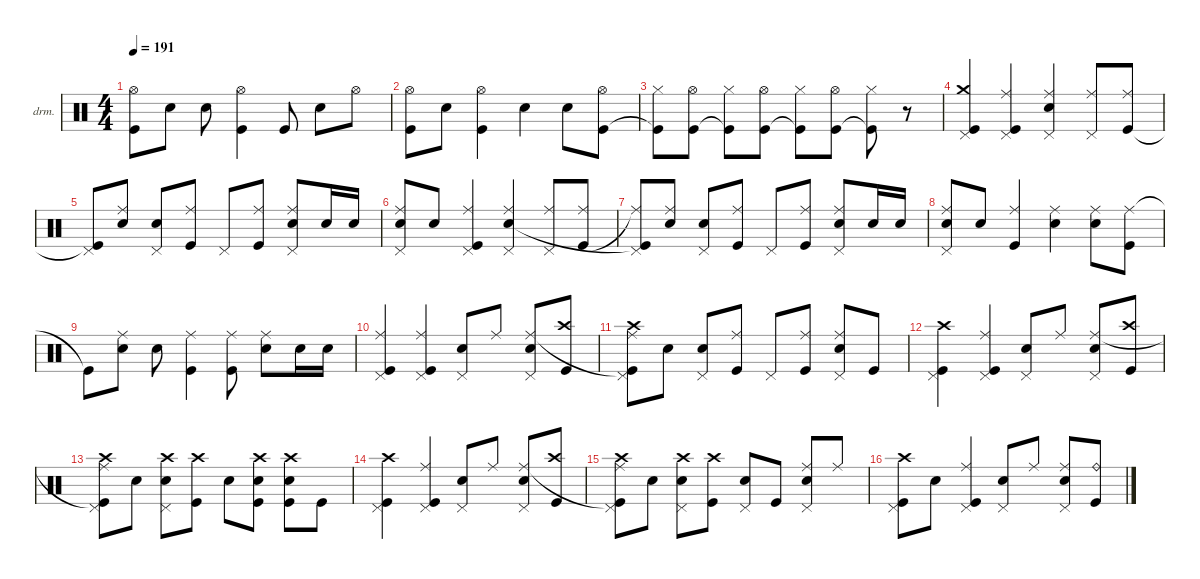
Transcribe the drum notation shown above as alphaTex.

\defaultSystemsLayout 4
\hideDynamics
\bracketExtendMode nobrackets
\firstSystemTrackNameOrientation horizontal
\otherSystemsTrackNameOrientation horizontal
\track ("Drumkit" "drm.") {instrument percussion}
\staff {score}
\articulation defaults
\ts (4 4)
\tempo 191
\clef neutral
\ks c
("Kick (hit)"{t} "Hi-Hat (open)"{t}).8{dy mf beam Down} "Snare (hit) 2".8{beam Down} "Snare (hit) 2".8{beam Down} ("Kick (hit)" "Hi-Hat (open)").4{beam Down} "Kick (hit)".8{beam Up} "Snare (hit) 2".8{beam Down} "Hi-Hat (open)".8{beam Down} |
("Kick (hit)" "Hi-Hat (open)").8{beam Down} "Snare (hit) 2".8{beam Down} ("Kick (hit)" "Hi-Hat (open)").4{beam Down} "Snare (hit) 2".4{beam Down} "Snare (hit) 2".8{beam Down} ("Kick (hit)" "Hi-Hat (open)").8{beam Down} |
("Kick (hit)"{t} "Hi-Hat (closed)").8{beam Down} ("Kick (hit)" "Hi-Hat (open)").8{beam Down} ("Kick (hit)"{t} "Hi-Hat (closed)").8{beam Down} ("Kick (hit)" "Hi-Hat (open)").8{beam Down} ("Kick (hit)"{t} "Hi-Hat (closed)").8{beam Down} ("Kick (hit)" "Hi-Hat (open)").8{beam Down} ("Kick (hit)"{t} "Hi-Hat (closed)").8{beam Down} r.8{beam Down} |
("Pedal Hi-Hat (hit)" "Crash medium (hit)" "Kick (hit)").4{dy f beam Up} ("Pedal Hi-Hat (hit)" "Ride (middle)" "Kick (hit)").4{beam Up} ("Pedal Hi-Hat (hit)" "Ride (middle)" "Snare (hit) 2").4{beam Up} ("Pedal Hi-Hat (hit)" "Ride (middle)").8{beam Up} ("Ride (middle)" "Kick (hit)").8{beam Up} |
("Pedal Hi-Hat (hit)" "Kick (hit)"{t}).8{beam Up} ("Ride (middle)" "Snare (hit) 2").8{beam Up} ("Pedal Hi-Hat (hit)" "Snare (hit) 2").8{beam Up} ("Ride (middle)" "Kick (hit)").8{beam Up} "Pedal Hi-Hat (hit)".8{beam Up} ("Ride (middle)" "Kick (hit)").8{beam Up} ("Pedal Hi-Hat (hit)" "Ride (middle)" "Snare (hit) 2").8{beam Up} "Snare (hit) 2".16{dy mp beam Up} "Snare (hit) 2".16{beam Up} |
("Pedal Hi-Hat (hit)" "Ride (middle)" "Snare (hit) 2").8{dy f beam Up} "Snare (hit) 2".8{dy mf beam Up} ("Pedal Hi-Hat (hit)" "Ride (middle)" "Kick (hit)").4{dy f beam Up} ("Pedal Hi-Hat (hit)" "Ride (middle)" "Snare (hit) 2").4{beam Up} ("Pedal Hi-Hat (hit)" "Ride (middle)").8{beam Up} ("Ride (middle)" "Kick (hit)").8{dy mf beam Up} |
("Pedal Hi-Hat (hit)" "Ride (middle)"{t} "Kick (hit)"{t}).8{dy f beam Up} ("Ride (middle)" "Snare (hit) 2").8{beam Up} ("Pedal Hi-Hat (hit)" "Snare (hit) 2").8{beam Up} ("Kick (hit)" "Ride (middle)").8{beam Up} "Pedal Hi-Hat (hit)".8{beam Up} ("Ride (middle)" "Kick (hit)").8{beam Up} ("Pedal Hi-Hat (hit)" "Ride (middle)" "Snare (hit) 2").8{beam Up} "Snare (hit) 2".16{dy mp beam Up} "Snare (hit) 2".16{beam Up} |
("Pedal Hi-Hat (hit)" "Ride (middle)" "Snare (hit) 2").8{dy f beam Up} "Snare (hit) 2".8{dy mf beam Up} ("Ride (middle)" "Kick (hit)").4{dy f beam Up} ("Ride (middle)" "Snare (hit) 2").4{beam Down} ("Ride (middle)" "Snare (hit) 2").8{beam Down} ("Ride (middle)" "Kick (hit)").8{beam Down} |
"Kick (hit)"{t}.8{dy mf beam Down} ("Ride (middle)" "Snare (hit) 2").8{dy f beam Down} "Snare (hit) 2".8{beam Down} ("Ride (middle)" "Kick (hit)").4{beam Down} ("Ride (middle)" "Kick (hit)").8{beam Down} ("Ride (middle)" "Snare (hit) 2").8{beam Down} "Snare (hit) 2".16{dy mp beam Down} "Snare (hit) 2".16{beam Down} |
("Pedal Hi-Hat (hit)" "Kick (hit)" "Ride (middle)").4{dy f beam Up} ("Pedal Hi-Hat (hit)" "Kick (hit)" "Ride (middle)").4{beam Up} ("Pedal Hi-Hat (hit)" "Snare (hit) 2").8{beam Up} "Ride (middle)".8{dy mp beam Up} ("Pedal Hi-Hat (hit)" "Snare (hit) 2" "Ride (middle)").8{dy f beam Up} ("Kick (hit)" "Crash high (hit)").8{dy mp beam Up} |
("Pedal Hi-Hat (hit)" "Crash high (hit)" "Kick (hit)"{t} "Ride (middle)").8{dy f beam Down} "Snare (hit) 2".8{dy mp beam Down} ("Pedal Hi-Hat (hit)" "Snare (hit) 2").8{dy f beam Up} ("Ride (middle)" "Kick (hit)").8{dy mp beam Up} "Pedal Hi-Hat (hit)".8{dy f beam Up} ("Kick (hit)" "Ride (middle)").8{dy mp beam Up} ("Pedal Hi-Hat (hit)" "Snare (hit) 2" "Ride (middle)").8{dy f beam Up} "Kick (hit)".8{dy mp beam Up} |
("Pedal Hi-Hat (hit)" "Kick (hit)" "Crash high (hit)").4{dy f beam Down} ("Pedal Hi-Hat (hit)" "Kick (hit)" "Ride (middle)").4{beam Up} ("Pedal Hi-Hat (hit)" "Snare (hit) 2").8{beam Up} "Ride (middle)".8{dy mf beam Up} ("Pedal Hi-Hat (hit)" "Snare (hit) 2" "Ride (middle)").8{dy f beam Up} ("Kick (hit)" "Crash high (hit)").8{dy mp beam Up} |
("Pedal Hi-Hat (hit)" "Crash high (hit)" "Kick (hit)"{t} "Ride (middle)").8{dy f beam Down} "Snare (hit) 2".8{dy mp beam Down} ("Pedal Hi-Hat (hit)" "Snare (hit) 2" "Crash high (hit)").8{dy f beam Down} ("Kick (hit)" "Crash high (hit)").8{dy mp beam Down} "Snare (hit) 2".8{beam Down} ("Snare (hit) 2" "Kick (hit)" "Crash high (hit)").8{beam Down} ("Snare (hit) 2" "Kick (hit)" "Crash high (hit)").8{beam Down} "Kick (hit)".8{beam Down} |
("Pedal Hi-Hat (hit)" "Kick (hit)" "Crash high (hit)").4{dy f beam Down} ("Pedal Hi-Hat (hit)" "Kick (hit)" "Ride (middle)").4{beam Up} ("Pedal Hi-Hat (hit)" "Snare (hit) 2").8{beam Up} "Ride (middle)".8{dy mf beam Up} ("Pedal Hi-Hat (hit)" "Snare (hit) 2" "Ride (middle)").8{dy f beam Up} ("Kick (hit)" "Crash high (hit)").8{dy mp beam Up} |
("Pedal Hi-Hat (hit)" "Crash high (hit)" "Kick (hit)"{t} "Ride (middle)").8{dy f beam Down} "Snare (hit) 2".8{dy mp beam Down} ("Pedal Hi-Hat (hit)" "Snare (hit) 2" "Crash high (hit)").8{dy f beam Down} ("Kick (hit)" "Crash high (hit)").8{dy mp beam Down} ("Pedal Hi-Hat (hit)" "Snare (hit) 2").8{dy f beam Up} "Kick (hit)".8{dy mp beam Up} ("Pedal Hi-Hat (hit)" "Snare (hit) 2" "Ride (middle)").8{dy f beam Up} "Ride (middle)".8{dy mp beam Up} |
("Pedal Hi-Hat (hit)" "Kick (hit)" "Crash high (hit)").8{dy f beam Down} "Snare (hit) 2".8{dy mp beam Down} ("Pedal Hi-Hat (hit)" "Kick (hit)" "Ride (middle)").4{dy f beam Up} ("Pedal Hi-Hat (hit)" "Snare (hit) 2").8{beam Up} "Ride (middle)".8{dy mp beam Up} ("Pedal Hi-Hat (hit)" "Snare (hit) 2" "Ride (middle)").8{dy f beam Up} ("Kick (hit)" "Ride (bell)").8{dy mp beam Up}
